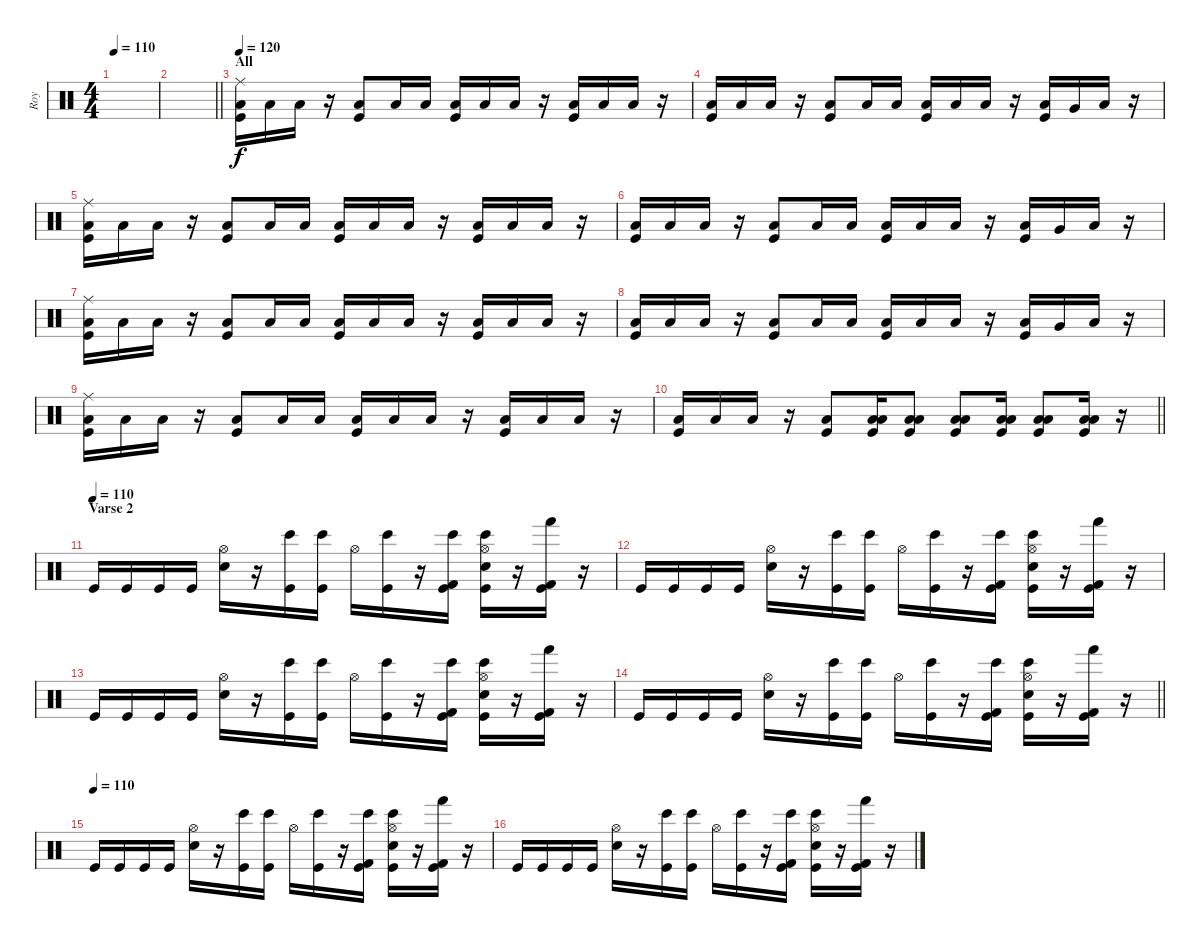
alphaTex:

\track ("Roy" "Roy") {instrument percussion}
\staff {score}
\articulation defaults
\ts (4 4)
\tempo 110
\clef neutral
\ks c
|
\barLineRight lightlight
|
\section ("" "All")
\tempo 120
("Ride (middle)" "Low Floor Tom (hit)" "Kick (hit)").16 "Low Floor Tom (hit)".16 "Low Floor Tom (hit)".16 r.16 ("Low Floor Tom (hit)" "Kick (hit)").8 "Low Floor Tom (hit)".16 "Low Floor Tom (hit)".16 ("Low Floor Tom (hit)" "Kick (hit)").16 "Low Floor Tom (hit)".16 "Low Floor Tom (hit)".16 r.16 ("Low Floor Tom (hit)" "Kick (hit)").16 "Low Floor Tom (hit)".16 "Low Floor Tom (hit)".16 r.16 |
("Low Floor Tom (hit)" "Kick (hit)").16 "Low Floor Tom (hit)".16 "Low Floor Tom (hit)".16 r.16 ("Low Floor Tom (hit)" "Kick (hit)").8 "Low Floor Tom (hit)".16 "Low Floor Tom (hit)".16 ("Low Floor Tom (hit)" "Kick (hit)").16 "Low Floor Tom (hit)".16 "Low Floor Tom (hit)".16 r.16 ("Low Floor Tom (hit)" "Kick (hit)").16 "Very Low Tom (hit)".16 "Low Floor Tom (hit)".16 r.16 |
("Ride (middle)" "Low Floor Tom (hit)" "Kick (hit)").16 "Low Floor Tom (hit)".16 "Low Floor Tom (hit)".16 r.16 ("Low Floor Tom (hit)" "Kick (hit)").8 "Low Floor Tom (hit)".16 "Low Floor Tom (hit)".16 ("Low Floor Tom (hit)" "Kick (hit)").16 "Low Floor Tom (hit)".16 "Low Floor Tom (hit)".16 r.16 ("Low Floor Tom (hit)" "Kick (hit)").16 "Low Floor Tom (hit)".16 "Low Floor Tom (hit)".16 r.16 |
("Low Floor Tom (hit)" "Kick (hit)").16 "Low Floor Tom (hit)".16 "Low Floor Tom (hit)".16 r.16 ("Low Floor Tom (hit)" "Kick (hit)").8 "Low Floor Tom (hit)".16 "Low Floor Tom (hit)".16 ("Low Floor Tom (hit)" "Kick (hit)").16 "Low Floor Tom (hit)".16 "Low Floor Tom (hit)".16 r.16 ("Low Floor Tom (hit)" "Kick (hit)").16 "Very Low Tom (hit)".16 "Low Floor Tom (hit)".16 r.16 |
("Ride (middle)" "Low Floor Tom (hit)" "Kick (hit)").16 "Low Floor Tom (hit)".16 "Low Floor Tom (hit)".16 r.16 ("Low Floor Tom (hit)" "Kick (hit)").8 "Low Floor Tom (hit)".16 "Low Floor Tom (hit)".16 ("Low Floor Tom (hit)" "Kick (hit)").16 "Low Floor Tom (hit)".16 "Low Floor Tom (hit)".16 r.16 ("Low Floor Tom (hit)" "Kick (hit)").16 "Low Floor Tom (hit)".16 "Low Floor Tom (hit)".16 r.16 |
("Low Floor Tom (hit)" "Kick (hit)").16 "Low Floor Tom (hit)".16 "Low Floor Tom (hit)".16 r.16 ("Low Floor Tom (hit)" "Kick (hit)").8 "Low Floor Tom (hit)".16 "Low Floor Tom (hit)".16 ("Low Floor Tom (hit)" "Kick (hit)").16 "Low Floor Tom (hit)".16 "Low Floor Tom (hit)".16 r.16 ("Low Floor Tom (hit)" "Kick (hit)").16 "Very Low Tom (hit)".16 "Low Floor Tom (hit)".16 r.16 |
("Ride (middle)" "Low Floor Tom (hit)" "Kick (hit)").16 "Low Floor Tom (hit)".16 "Low Floor Tom (hit)".16 r.16 ("Low Floor Tom (hit)" "Kick (hit)").8 "Low Floor Tom (hit)".16 "Low Floor Tom (hit)".16 ("Low Floor Tom (hit)" "Kick (hit)").16 "Low Floor Tom (hit)".16 "Low Floor Tom (hit)".16 r.16 ("Low Floor Tom (hit)" "Kick (hit)").16 "Low Floor Tom (hit)".16 "Low Floor Tom (hit)".16 r.16 |
\barLineRight lightlight
("Low Floor Tom (hit)" "Kick (hit)").16 "Low Floor Tom (hit)".16 "Low Floor Tom (hit)".16 r.16 ("Low Floor Tom (hit)" "Kick (hit)").8 ("Low Floor Tom (hit)" "Low Floor Tom (hit)" "Kick (hit)").16 ("Low Floor Tom (hit)" "Low Floor Tom (hit)" "Kick (hit)").8 ("Low Floor Tom (hit)" "Low Floor Tom (hit)" "Kick (hit)").8 ("Low Floor Tom (hit)" "Low Floor Tom (hit)" "Kick (hit)").16 ("Low Floor Tom (hit)" "Low Floor Tom (hit)" "Kick (hit)").8 ("Low Floor Tom (hit)" "Low Floor Tom (hit)" "Kick (hit)").16 r.16 |
\section ("" "Varse 2")
\tempo (110)
"Kick (hit)".16 "Kick (hit)".16 "Kick (hit)".16 "Kick (hit)".16 ("Hi-Hat (open)" "Electric Snare (hit)").16 r.16 ("Bongo High (hit)" "Kick (hit)").16 ("Bongo High (hit)" "Kick (hit)").16 "Hi-Hat (open)".16 ("Bongo High (hit)" "Kick (hit)").16 r.16 ("Kick (hit) 2" "Bongo High (hit)" "Kick (hit)").16 ("Hi-Hat (open)" "Electric Snare (hit)" "Bongo High (hit)" "Kick (hit)").16 r.16 ("Kick (hit) 2" "Hand (hit)" "Kick (hit)").16 r.16 |
"Kick (hit)".16 "Kick (hit)".16 "Kick (hit)".16 "Kick (hit)".16 ("Hi-Hat (open)" "Electric Snare (hit)").16 r.16 ("Bongo High (hit)" "Kick (hit)").16 ("Bongo High (hit)" "Kick (hit)").16 "Hi-Hat (open)".16 ("Bongo High (hit)" "Kick (hit)").16 r.16 ("Kick (hit) 2" "Bongo High (hit)" "Kick (hit)").16 ("Hi-Hat (open)" "Electric Snare (hit)" "Bongo High (hit)" "Kick (hit)").16 r.16 ("Kick (hit) 2" "Hand (hit)" "Kick (hit)").16 r.16 |
"Kick (hit)".16 "Kick (hit)".16 "Kick (hit)".16 "Kick (hit)".16 ("Hi-Hat (open)" "Electric Snare (hit)").16 r.16 ("Bongo High (hit)" "Kick (hit)").16 ("Bongo High (hit)" "Kick (hit)").16 "Hi-Hat (open)".16 ("Bongo High (hit)" "Kick (hit)").16 r.16 ("Kick (hit) 2" "Bongo High (hit)" "Kick (hit)").16 ("Hi-Hat (open)" "Electric Snare (hit)" "Bongo High (hit)" "Kick (hit)").16 r.16 ("Kick (hit) 2" "Hand (hit)" "Kick (hit)").16 r.16 |
\barLineRight lightlight "Kick (hit)".16 "Kick (hit)".16 "Kick (hit)".16 "Kick (hit)".16
("Hi-Hat (open)" "Electric Snare (hit)").16 r.16 ("Bongo High (hit)" "Kick (hit)").16 ("Bongo High (hit)" "Kick (hit)").16 "Hi-Hat (open)".16 ("Bongo High (hit)" "Kick (hit)").16 r.16 ("Kick (hit) 2" "Bongo High (hit)" "Kick (hit)").16 ("Hi-Hat (open)" "Electric Snare (hit)" "Bongo High (hit)" "Kick (hit)").16 r.16 ("Kick (hit) 2" "Hand (hit)" "Kick (hit)").16 r.16 |
\tempo (110)
"Kick (hit)".16 "Kick (hit)".16 "Kick (hit)".16 "Kick (hit)".16 ("Hi-Hat (open)" "Electric Snare (hit)").16 r.16 ("Bongo High (hit)" "Kick (hit)").16 ("Bongo High (hit)" "Kick (hit)").16 "Hi-Hat (open)".16 ("Bongo High (hit)" "Kick (hit)").16 r.16 ("Kick (hit) 2" "Bongo High (hit)" "Kick (hit)").16 ("Hi-Hat (open)" "Electric Snare (hit)" "Bongo High (hit)" "Kick (hit)").16 r.16 ("Kick (hit) 2" "Hand (hit)" "Kick (hit)").16 r.16 |
"Kick (hit)".16 "Kick (hit)".16 "Kick (hit)".16 "Kick (hit)".16 ("Hi-Hat (open)" "Electric Snare (hit)").16 r.16 ("Bongo High (hit)" "Kick (hit)").16 ("Bongo High (hit)" "Kick (hit)").16 "Hi-Hat (open)".16 ("Bongo High (hit)" "Kick (hit)").16 r.16 ("Kick (hit) 2" "Bongo High (hit)" "Kick (hit)").16 ("Hi-Hat (open)" "Electric Snare (hit)" "Bongo High (hit)" "Kick (hit)").16 r.16 ("Kick (hit) 2" "Hand (hit)" "Kick (hit)").16 r.16
